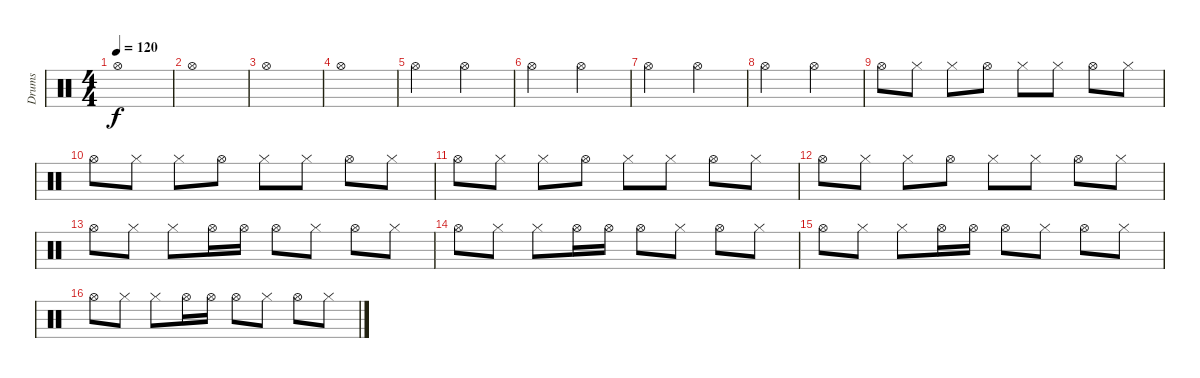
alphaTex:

\track ("Drums" "Drums") {instrument percussion}
\staff {score}
\articulation defaults
\ts (4 4)
\tempo 120
\clef neutral
\ks c "Hi-Hat (open)".1{dy f}
|
"Hi-Hat (open)".1 |
"Hi-Hat (open)".1 |
"Hi-Hat (open)".1 |
"Hi-Hat (open)".2 "Hi-Hat (open)".2 |
"Hi-Hat (open)".2 "Hi-Hat (open)".2 |
"Hi-Hat (open)".2 "Hi-Hat (open)".2 |
"Hi-Hat (open)".2 "Hi-Hat (open)".2 |
"Hi-Hat (open)".8 "Hi-Hat (closed)".8 "Hi-Hat (closed)".8 "Hi-Hat (open)".8 "Hi-Hat (closed)".8 "Hi-Hat (closed)".8 "Hi-Hat (open)".8 "Hi-Hat (closed)".8 |
"Hi-Hat (open)".8 "Hi-Hat (closed)".8 "Hi-Hat (closed)".8 "Hi-Hat (open)".8 "Hi-Hat (closed)".8 "Hi-Hat (closed)".8 "Hi-Hat (open)".8 "Hi-Hat (closed)".8 |
"Hi-Hat (open)".8 "Hi-Hat (closed)".8 "Hi-Hat (closed)".8 "Hi-Hat (open)".8 "Hi-Hat (closed)".8 "Hi-Hat (closed)".8 "Hi-Hat (open)".8 "Hi-Hat (closed)".8 |
"Hi-Hat (open)".8 "Hi-Hat (closed)".8 "Hi-Hat (closed)".8 "Hi-Hat (open)".8 "Hi-Hat (closed)".8 "Hi-Hat (closed)".8 "Hi-Hat (open)".8 "Hi-Hat (closed)".8 |
"Hi-Hat (open)".8 "Hi-Hat (closed)".8 "Hi-Hat (closed)".8 "Hi-Hat (open)".16 "Hi-Hat (open)".16 "Hi-Hat (open)".8 "Hi-Hat (closed)".8 "Hi-Hat (open)".8 "Hi-Hat (closed)".8 |
"Hi-Hat (open)".8 "Hi-Hat (closed)".8 "Hi-Hat (closed)".8 "Hi-Hat (open)".16 "Hi-Hat (open)".16 "Hi-Hat (open)".8 "Hi-Hat (closed)".8 "Hi-Hat (open)".8 "Hi-Hat (closed)".8 |
"Hi-Hat (open)".8 "Hi-Hat (closed)".8 "Hi-Hat (closed)".8 "Hi-Hat (open)".16 "Hi-Hat (open)".16 "Hi-Hat (open)".8 "Hi-Hat (closed)".8 "Hi-Hat (open)".8 "Hi-Hat (closed)".8 |
"Hi-Hat (open)".8 "Hi-Hat (closed)".8 "Hi-Hat (closed)".8 "Hi-Hat (open)".16 "Hi-Hat (open)".16 "Hi-Hat (open)".8 "Hi-Hat (closed)".8 "Hi-Hat (open)".8 "Hi-Hat (closed)".8
